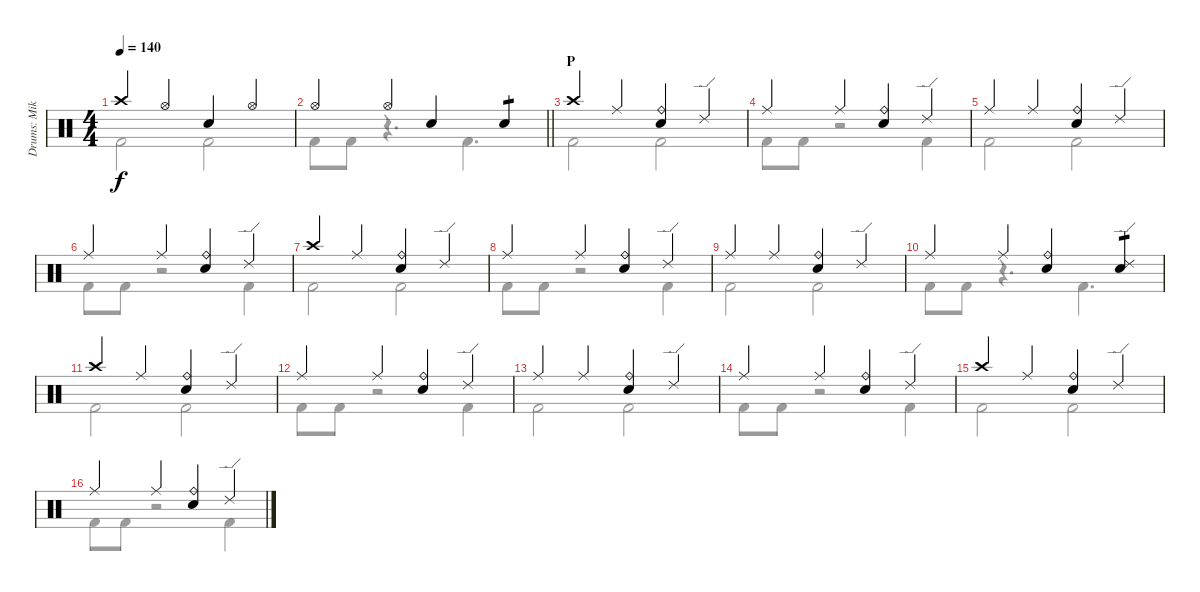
\track ("Drums: Mike" "Drums: Mik") {instrument percussion}
\staff {score}
\articulation defaults
\voice
\ts (4 4)
\tempo 140
\clef neutral
\ks c "Crash high (hit)".4{dy f} "Hi-Hat (open)".4 "Snare (hit) 2".4 "Hi-Hat (open)".4
|
\barLineRight lightlight "Hi-Hat (open)".4 "Hi-Hat (open)".4 "Snare (hit) 2".4 "Snare (hit) 2".4{tp 1}
|
\section ("" "P")
"Crash high (hit)".4 "Ride (middle)".4 ("Ride (bell)" "Snare (hit) 2").4 "Ride (edge) 2".4 |
"Ride (middle)".4 "Ride (middle)".4 ("Ride (bell)" "Snare (hit) 2").4 "Ride (edge) 2".4 |
"Ride (middle)".4 "Ride (middle)".4 ("Ride (bell)" "Snare (hit) 2").4 "Ride (edge) 2".4 |
"Ride (middle)".4 "Ride (middle)".4 ("Ride (bell)" "Snare (hit) 2").4 "Ride (edge) 2".4 |
"Crash high (hit)".4 "Ride (middle)".4 ("Ride (bell)" "Snare (hit) 2").4 "Ride (edge) 2".4 |
"Ride (middle)".4 "Ride (middle)".4 ("Ride (bell)" "Snare (hit) 2").4 "Ride (edge) 2".4 |
"Ride (middle)".4 "Ride (middle)".4 ("Ride (bell)" "Snare (hit) 2").4 "Ride (edge) 2".4 |
"Ride (middle)".4 "Ride (middle)".4 ("Ride (bell)" "Snare (hit) 2").4 ("Ride (edge) 2" "Snare (hit) 2").4{tp 1} |
"Crash high (hit)".4 "Ride (middle)".4 ("Ride (bell)" "Snare (hit) 2").4 "Ride (edge) 2".4 |
"Ride (middle)".4 "Ride (middle)".4 ("Ride (bell)" "Snare (hit) 2").4 "Ride (edge) 2".4 |
"Ride (middle)".4 "Ride (middle)".4 ("Ride (bell)" "Snare (hit) 2").4 "Ride (edge) 2".4 |
"Ride (middle)".4 "Ride (middle)".4 ("Ride (bell)" "Snare (hit) 2").4 "Ride (edge) 2".4 |
"Crash high (hit)".4 "Ride (middle)".4 ("Ride (bell)" "Snare (hit) 2").4 "Ride (edge) 2".4 |
"Ride (middle)".4 "Ride (middle)".4 ("Ride (bell)" "Snare (hit) 2").4 "Ride (edge) 2".4
\voice
\clef neutral
\ottava regular
\simile none
\ks c "Kick (hit) 2".2{dy f} "Kick (hit) 2".2
|
\barLineRight lightlight "Kick (hit) 2".8 "Kick (hit) 2".8
r.4{d} "Kick (hit) 2".4{d} |
"Kick (hit) 2".2 "Kick (hit) 2".2 |
"Kick (hit) 2".8 "Kick (hit) 2".8 r.2 "Kick (hit) 2".4 |
"Kick (hit) 2".2 "Kick (hit) 2".2 |
"Kick (hit) 2".8 "Kick (hit) 2".8 r.2 "Kick (hit) 2".4 |
"Kick (hit) 2".2 "Kick (hit) 2".2 |
"Kick (hit) 2".8 "Kick (hit) 2".8 r.2 "Kick (hit) 2".4 |
"Kick (hit) 2".2 "Kick (hit) 2".2 |
"Kick (hit) 2".8 "Kick (hit) 2".8 r.4{d} "Kick (hit) 2".4{d} |
"Kick (hit) 2".2 "Kick (hit) 2".2 |
"Kick (hit) 2".8 "Kick (hit) 2".8 r.2 "Kick (hit) 2".4 |
"Kick (hit) 2".2 "Kick (hit) 2".2 |
"Kick (hit) 2".8 "Kick (hit) 2".8 r.2 "Kick (hit) 2".4 |
"Kick (hit) 2".2 "Kick (hit) 2".2 |
"Kick (hit) 2".8 "Kick (hit) 2".8 r.2 "Kick (hit) 2".4
